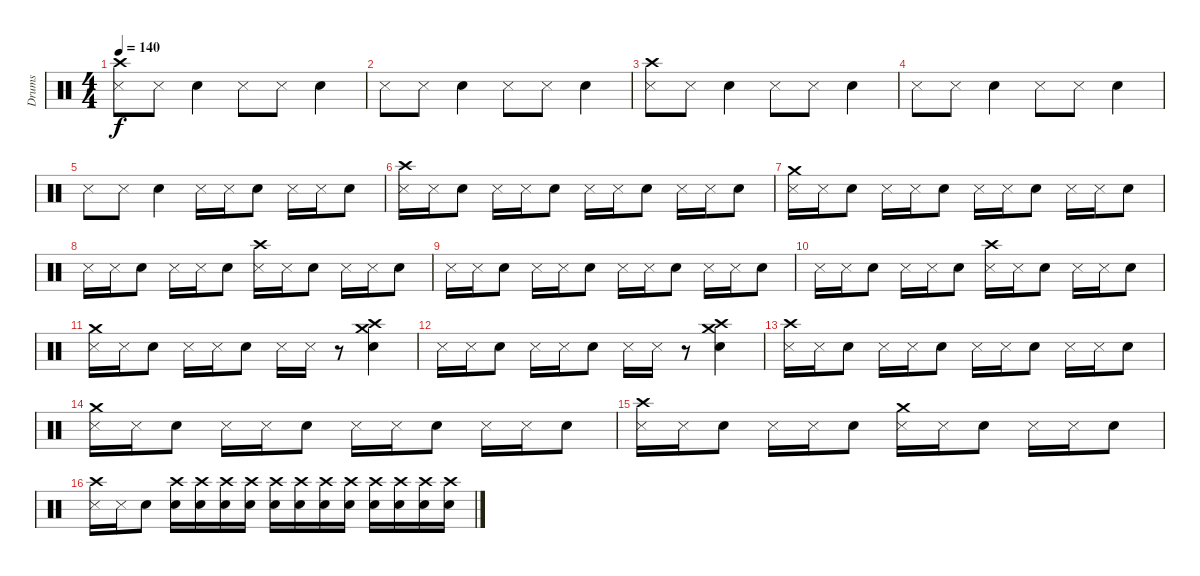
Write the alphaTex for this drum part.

\track ("Drums" "Drums") {instrument percussion}
\staff {score}
\articulation defaults
\ts (4 4)
\tempo 140
\clef neutral
\ks c
("Crash high (hit)" "Metronome (hit)").8{dy f} "Metronome (hit)".8 "Electric Snare (hit)".4 "Metronome (hit)".8 "Metronome (hit)".8 "Electric Snare (hit)".4 |
"Metronome (hit)".8 "Metronome (hit)".8 "Electric Snare (hit)".4 "Metronome (hit)".8 "Metronome (hit)".8 "Electric Snare (hit)".4 |
("Crash high (hit)" "Metronome (hit)").8 "Metronome (hit)".8 "Electric Snare (hit)".4 "Metronome (hit)".8 "Metronome (hit)".8 "Electric Snare (hit)".4 |
"Metronome (hit)".8 "Metronome (hit)".8 "Electric Snare (hit)".4 "Metronome (hit)".8 "Metronome (hit)".8 "Electric Snare (hit)".4 |
"Metronome (hit)".8 "Metronome (hit)".8 "Electric Snare (hit)".4 "Metronome (hit)".16 "Metronome (hit)".16 "Electric Snare (hit)".8 "Metronome (hit)".16 "Metronome (hit)".16 "Electric Snare (hit)".8 |
("Crash high (hit)" "Metronome (hit)").16 "Metronome (hit)".16 "Electric Snare (hit)".8 "Metronome (hit)".16 "Metronome (hit)".16 "Electric Snare (hit)".8 "Metronome (hit)".16 "Metronome (hit)".16 "Electric Snare (hit)".8 "Metronome (hit)".16 "Metronome (hit)".16 "Electric Snare (hit)".8 |
("Crash medium (hit)" "Metronome (hit)").16 "Metronome (hit)".16 "Electric Snare (hit)".8 "Metronome (hit)".16 "Metronome (hit)".16 "Electric Snare (hit)".8 "Metronome (hit)".16 "Metronome (hit)".16 "Electric Snare (hit)".8 "Metronome (hit)".16 "Metronome (hit)".16 "Electric Snare (hit)".8 |
"Metronome (hit)".16 "Metronome (hit)".16 "Electric Snare (hit)".8 "Metronome (hit)".16 "Metronome (hit)".16 "Electric Snare (hit)".8 ("Crash high (hit)" "Metronome (hit)").16 "Metronome (hit)".16 "Electric Snare (hit)".8 "Metronome (hit)".16 "Metronome (hit)".16 "Electric Snare (hit)".8 |
"Metronome (hit)".16 "Metronome (hit)".16 "Electric Snare (hit)".8 "Metronome (hit)".16 "Metronome (hit)".16 "Electric Snare (hit)".8 "Metronome (hit)".16 "Metronome (hit)".16 "Electric Snare (hit)".8 "Metronome (hit)".16 "Metronome (hit)".16 "Electric Snare (hit)".8 |
"Metronome (hit)".16 "Metronome (hit)".16 "Electric Snare (hit)".8 "Metronome (hit)".16 "Metronome (hit)".16 "Electric Snare (hit)".8 ("Crash high (hit)" "Metronome (hit)").16 "Metronome (hit)".16 "Electric Snare (hit)".8 "Metronome (hit)".16 "Metronome (hit)".16 "Electric Snare (hit)".8 |
("Crash medium (hit)" "Metronome (hit)").16 "Metronome (hit)".16 "Electric Snare (hit)".8 "Metronome (hit)".16 "Metronome (hit)".16 "Electric Snare (hit)".8 "Metronome (hit)".16 "Metronome (hit)".16 r.8 ("Crash medium (hit)" "Crash high (hit)" "Electric Snare (hit)").4 |
"Metronome (hit)".16 "Metronome (hit)".16 "Electric Snare (hit)".8 "Metronome (hit)".16 "Metronome (hit)".16 "Electric Snare (hit)".8 "Metronome (hit)".16 "Metronome (hit)".16 r.8 ("Crash medium (hit)" "Crash high (hit)" "Electric Snare (hit)").4 |
("Crash high (hit)" "Metronome (hit)").16 "Metronome (hit)".16 "Electric Snare (hit)".8 "Metronome (hit)".16 "Metronome (hit)".16 "Electric Snare (hit)".8 "Metronome (hit)".16 "Metronome (hit)".16 "Electric Snare (hit)".8 "Metronome (hit)".16 "Metronome (hit)".16 "Electric Snare (hit)".8 |
("Crash medium (hit)" "Metronome (hit)").16 "Metronome (hit)".16 "Electric Snare (hit)".8 "Metronome (hit)".16 "Metronome (hit)".16 "Electric Snare (hit)".8 "Metronome (hit)".16 "Metronome (hit)".16 "Electric Snare (hit)".8 "Metronome (hit)".16 "Metronome (hit)".16 "Electric Snare (hit)".8 |
("Crash high (hit)" "Metronome (hit)").16 "Metronome (hit)".16 "Electric Snare (hit)".8 "Metronome (hit)".16 "Metronome (hit)".16 "Electric Snare (hit)".8 ("Crash medium (hit)" "Metronome (hit)").16 "Metronome (hit)".16 "Electric Snare (hit)".8 "Metronome (hit)".16 "Metronome (hit)".16 "Electric Snare (hit)".8 |
("Crash high (hit)" "Metronome (hit)").16 "Metronome (hit)".16 "Electric Snare (hit)".8 ("Crash high (hit)" "Electric Snare (hit)").16 ("Crash high (hit)" "Electric Snare (hit)").16 ("Crash high (hit)" "Electric Snare (hit)").16 ("Crash high (hit)" "Electric Snare (hit)").16 ("Crash high (hit)" "Electric Snare (hit)").16 ("Crash high (hit)" "Electric Snare (hit)").16 ("Crash high (hit)" "Electric Snare (hit)").16 ("Crash high (hit)" "Electric Snare (hit)").16 ("Crash high (hit)" "Electric Snare (hit)").16 ("Crash high (hit)" "Electric Snare (hit)").16 ("Crash high (hit)" "Electric Snare (hit)").16 ("Crash high (hit)" "Electric Snare (hit)").16
